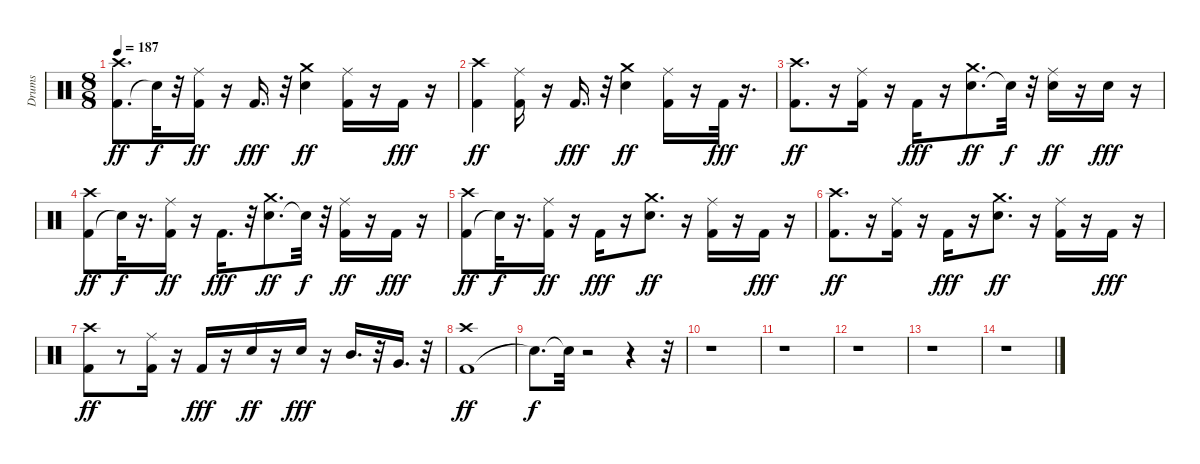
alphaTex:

\track ("Drums" "Drums") {instrument percussion}
\staff {score}
\articulation defaults
\ts (8 8)
\tempo 187
\clef neutral
\ks c
("Kick (hit) 2" "Crash high (hit)").8{d dy ff} "Snare (hit)"{t}.32{dy f} r.32 ("Kick (hit) 2" "Ride (middle)").16{dy ff} r.16 "Kick (hit) 2".16{d dy fff} r.32 ("Snare (hit) 2" "Crash medium (hit)").4{dy ff} ("Kick (hit) 2" "Ride (middle)").16 r.16 "Kick (hit) 2".16{dy fff} r.16 |
("Kick (hit) 2" "Crash high (hit)").4{dy ff} ("Kick (hit) 2" "Ride (middle)").16 r.16 "Kick (hit) 2".16{d dy fff} r.32 ("Snare (hit) 2" "Crash medium (hit)").4{dy ff} ("Kick (hit) 2" "Ride (middle)").16 r.16 "Kick (hit) 2".32{dy fff} r.16{d} |
("Kick (hit) 2" "Crash high (hit)").8{d dy ff} r.16 ("Kick (hit) 2" "Ride (middle)").16 r.16 "Kick (hit) 2".16{dy fff} r.16 ("Snare (hit) 2" "Crash medium (hit)").8{d dy ff} "Snare (hit)"{t}.32{dy f} r.32 ("Snare (hit) 2" "Ride (middle)").16{dy ff} r.16 "Snare (hit) 2".16{dy fff} r.16 |
("Kick (hit) 2" "Crash high (hit)").8{dy ff} "Snare (hit)"{t}.32{dy f} r.16{d} ("Kick (hit) 2" "Ride (middle)").16{dy ff} r.16 "Kick (hit) 2".16{d dy fff} r.32 ("Snare (hit) 2" "Crash medium (hit)").8{d dy ff} "Snare (hit)"{t}.32{dy f} r.32 ("Kick (hit) 2" "Ride (middle)").16{dy ff} r.16 "Kick (hit) 2".16{dy fff} r.16 |
("Kick (hit) 2" "Crash high (hit)").8{dy ff} "Snare (hit)"{t}.32{dy f} r.16{d} ("Kick (hit) 2" "Ride (middle)").16{dy ff} r.16 "Kick (hit) 2".16{dy fff} r.16 ("Snare (hit) 2" "Crash medium (hit)").8{d dy ff} r.16 ("Kick (hit) 2" "Ride (middle)").16 r.16 "Kick (hit) 2".16{dy fff} r.16 |
("Kick (hit) 2" "Crash high (hit)").8{d dy ff} r.16 ("Kick (hit) 2" "Ride (middle)").16 r.16 "Kick (hit) 2".16{dy fff} r.16 ("Snare (hit) 2" "Crash medium (hit)").8{d dy ff} r.16 ("Kick (hit) 2" "Ride (middle)").16 r.16 "Kick (hit) 2".16{dy fff} r.16 |
("Kick (hit) 2" "Crash high (hit)").8{dy ff} r.8 ("Kick (hit) 2" "Ride (middle)").16 r.16 "Kick (hit) 2".16{dy fff} r.16 "Snare (hit) 2".16{dy ff} r.16 "Snare (hit) 2".16{dy fff} r.16 "Mid Tom (hit)".16{d} r.32 "Very Low Tom (hit)".16{d} r.32 |
("Kick (hit) 2" "Crash high (hit)").1{dy ff} |
"Snare (hit)"{t}.8{d dy f} "Snare (hit)"{t}.32 r.2 r.4 r.32 |
r.1 |
r.1 |
r.1 |
r.1 |
r.1
